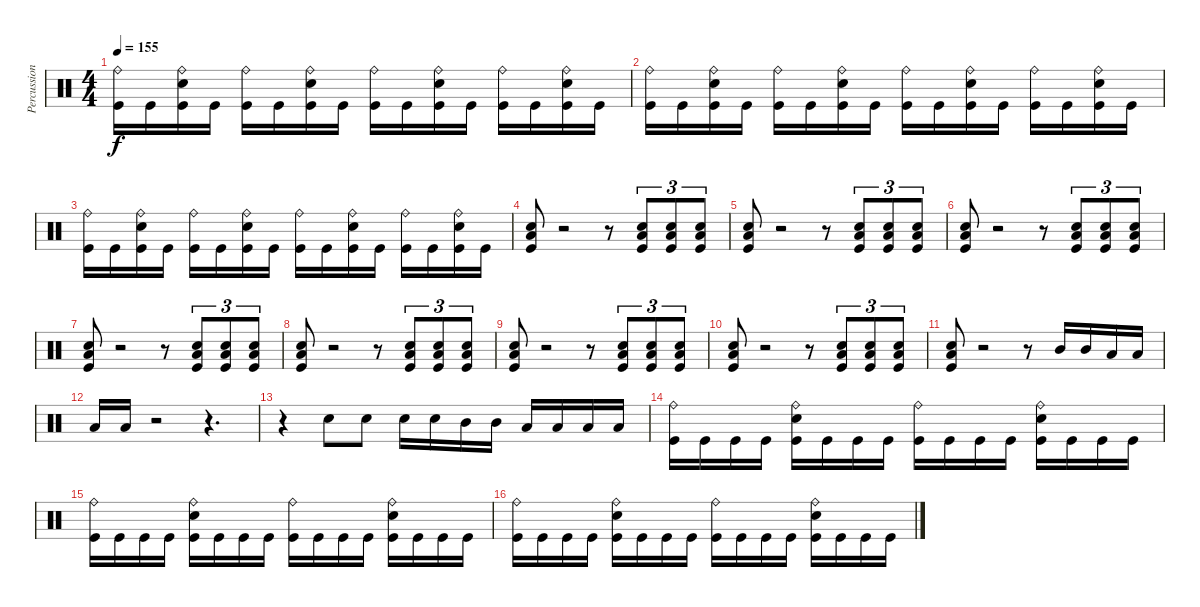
\track ("Percussion" "Percussion") {instrument percussion}
\staff {score}
\articulation defaults
\ts (4 4)
\tempo 155
\clef neutral
\ks c
("Ride (bell)" "Kick (hit)").16{dy f} "Kick (hit)".16 ("Ride (bell)" "Snare (hit) 2" "Kick (hit)").16 "Kick (hit)".16 ("Ride (bell)" "Kick (hit)").16 "Kick (hit)".16 ("Ride (bell)" "Snare (hit) 2" "Kick (hit)").16 "Kick (hit)".16 ("Ride (bell)" "Kick (hit)").16 "Kick (hit)".16 ("Ride (bell)" "Snare (hit) 2" "Kick (hit)").16 "Kick (hit)".16 ("Ride (bell)" "Kick (hit)").16 "Kick (hit)".16 ("Ride (bell)" "Snare (hit) 2" "Kick (hit)").16 "Kick (hit)".16 |
("Ride (bell)" "Kick (hit)").16 "Kick (hit)".16 ("Ride (bell)" "Snare (hit) 2" "Kick (hit)").16 "Kick (hit)".16 ("Ride (bell)" "Kick (hit)").16 "Kick (hit)".16 ("Ride (bell)" "Snare (hit) 2" "Kick (hit)").16 "Kick (hit)".16 ("Ride (bell)" "Kick (hit)").16 "Kick (hit)".16 ("Ride (bell)" "Snare (hit) 2" "Kick (hit)").16 "Kick (hit)".16 ("Ride (bell)" "Kick (hit)").16 "Kick (hit)".16 ("Ride (bell)" "Snare (hit) 2" "Kick (hit)").16 "Kick (hit)".16 |
("Ride (bell)" "Kick (hit)").16 "Kick (hit)".16 ("Ride (bell)" "Snare (hit) 2" "Kick (hit)").16 "Kick (hit)".16 ("Ride (bell)" "Kick (hit)").16 "Kick (hit)".16 ("Ride (bell)" "Snare (hit) 2" "Kick (hit)").16 "Kick (hit)".16 ("Ride (bell)" "Kick (hit)").16 "Kick (hit)".16 ("Ride (bell)" "Snare (hit) 2" "Kick (hit)").16 "Kick (hit)".16 ("Ride (bell)" "Kick (hit)").16 "Kick (hit)".16 ("Ride (bell)" "Snare (hit) 2" "Kick (hit)").16 "Kick (hit)".16 |
("Low Floor Tom (hit)" "Snare (hit) 2" "Kick (hit)").8 r.2 r.8 ("Low Floor Tom (hit)" "Snare (hit) 2" "Kick (hit)").8{tu (3 2)} ("Low Floor Tom (hit)" "Snare (hit) 2" "Kick (hit)").8{tu (3 2)} ("Low Floor Tom (hit)" "Snare (hit) 2" "Kick (hit)").8{tu (3 2)} |
("Low Floor Tom (hit)" "Snare (hit) 2" "Kick (hit)").8 r.2 r.8 ("Low Floor Tom (hit)" "Snare (hit) 2" "Kick (hit)").8{tu (3 2)} ("Low Floor Tom (hit)" "Snare (hit) 2" "Kick (hit)").8{tu (3 2)} ("Low Floor Tom (hit)" "Snare (hit) 2" "Kick (hit)").8{tu (3 2)} |
("Low Floor Tom (hit)" "Snare (hit) 2" "Kick (hit)").8 r.2 r.8 ("Low Floor Tom (hit)" "Snare (hit) 2" "Kick (hit)").8{tu (3 2)} ("Low Floor Tom (hit)" "Snare (hit) 2" "Kick (hit)").8{tu (3 2)} ("Low Floor Tom (hit)" "Snare (hit) 2" "Kick (hit)").8{tu (3 2)} |
("Low Floor Tom (hit)" "Snare (hit) 2" "Kick (hit)").8 r.2 r.8 ("Low Floor Tom (hit)" "Snare (hit) 2" "Kick (hit)").8{tu (3 2)} ("Low Floor Tom (hit)" "Snare (hit) 2" "Kick (hit)").8{tu (3 2)} ("Low Floor Tom (hit)" "Snare (hit) 2" "Kick (hit)").8{tu (3 2)} |
("Low Floor Tom (hit)" "Snare (hit) 2" "Kick (hit)").8 r.2 r.8 ("Low Floor Tom (hit)" "Snare (hit) 2" "Kick (hit)").8{tu (3 2)} ("Low Floor Tom (hit)" "Snare (hit) 2" "Kick (hit)").8{tu (3 2)} ("Low Floor Tom (hit)" "Snare (hit) 2" "Kick (hit)").8{tu (3 2)} |
("Low Floor Tom (hit)" "Snare (hit) 2" "Kick (hit)").8 r.2 r.8 ("Low Floor Tom (hit)" "Snare (hit) 2" "Kick (hit)").8{tu (3 2)} ("Low Floor Tom (hit)" "Snare (hit) 2" "Kick (hit)").8{tu (3 2)} ("Low Floor Tom (hit)" "Snare (hit) 2" "Kick (hit)").8{tu (3 2)} |
("Low Floor Tom (hit)" "Snare (hit) 2" "Kick (hit)").8 r.2 r.8 ("Low Floor Tom (hit)" "Snare (hit) 2" "Kick (hit)").8{tu (3 2)} ("Low Floor Tom (hit)" "Snare (hit) 2" "Kick (hit)").8{tu (3 2)} ("Low Floor Tom (hit)" "Snare (hit) 2" "Kick (hit)").8{tu (3 2)} |
("Low Floor Tom (hit)" "Snare (hit) 2" "Kick (hit)").8 r.2 r.8 "Mid Tom (hit)".16 "Mid Tom (hit)".16 "Low Tom (hit)".16 "Low Tom (hit)".16 |
"Low Floor Tom (hit)".16 "Low Floor Tom (hit)".16 r.2 r.4{d} |
r.4 "Snare (hit) 2".8 "Snare (hit) 2".8 "Snare (hit) 2".16 "Snare (hit) 2".16 "Mid Tom (hit)".16 "Mid Tom (hit)".16 "Low Tom (hit)".16 "Low Tom (hit)".16 "Low Floor Tom (hit)".16 "Low Floor Tom (hit)".16 |
("Ride (bell)" "Kick (hit)").16 "Kick (hit)".16 "Kick (hit)".16 "Kick (hit)".16 ("Ride (bell)" "Snare (hit) 2" "Kick (hit)").16 "Kick (hit)".16 "Kick (hit)".16 "Kick (hit)".16 ("Ride (bell)" "Kick (hit)").16 "Kick (hit)".16 "Kick (hit)".16 "Kick (hit)".16 ("Ride (bell)" "Snare (hit) 2" "Kick (hit)").16 "Kick (hit)".16 "Kick (hit)".16 "Kick (hit)".16 |
("Ride (bell)" "Kick (hit)").16 "Kick (hit)".16 "Kick (hit)".16 "Kick (hit)".16 ("Ride (bell)" "Snare (hit) 2" "Kick (hit)").16 "Kick (hit)".16 "Kick (hit)".16 "Kick (hit)".16 ("Ride (bell)" "Kick (hit)").16 "Kick (hit)".16 "Kick (hit)".16 "Kick (hit)".16 ("Ride (bell)" "Snare (hit) 2" "Kick (hit)").16 "Kick (hit)".16 "Kick (hit)".16 "Kick (hit)".16 |
("Ride (bell)" "Kick (hit)").16 "Kick (hit)".16 "Kick (hit)".16 "Kick (hit)".16 ("Ride (bell)" "Snare (hit) 2" "Kick (hit)").16 "Kick (hit)".16 "Kick (hit)".16 "Kick (hit)".16 ("Ride (bell)" "Kick (hit)").16 "Kick (hit)".16 "Kick (hit)".16 "Kick (hit)".16 ("Ride (bell)" "Snare (hit) 2" "Kick (hit)").16 "Kick (hit)".16 "Kick (hit)".16 "Kick (hit)".16
